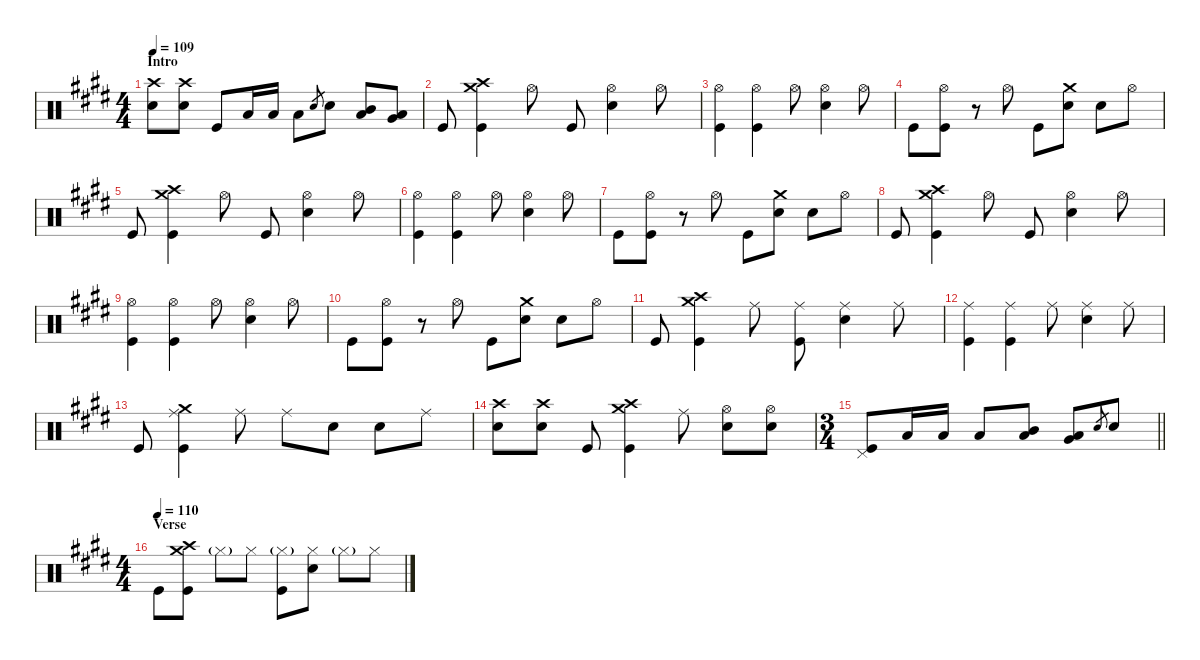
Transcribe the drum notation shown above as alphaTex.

\defaultSystemsLayout 4
\hideDynamics
\bracketExtendMode nobrackets
\singleTrackTrackNamePolicy hidden
\multiTrackTrackNamePolicy hidden
\firstSystemTrackNameMode fullname
\firstSystemTrackNameOrientation horizontal
\otherSystemsTrackNameOrientation horizontal
\track ("Aaron Harris" "drm.") {instrument percussion}
\staff {score}
\articulation defaults
\ts (4 4)
\beaming (8 2 2 2 2)
\section ("" "Intro")
\tempo 109
\clef neutral
\ks c#minor
("Crash high (hit)"{acc forcenatural} "Snare (hit) 2"{acc forcenatural}).8{dy f beam Down} ("Crash high (hit)"{acc forcenatural} "Snare (hit) 2"{acc forcenatural}).8{beam Down} "Kick (hit)"{acc forcenatural}.8{beam Up} "Low Tom (hit)"{acc forcenatural}.16{beam Up} "Low Tom (hit)"{acc forcenatural}.16{beam Up} "Low Tom (hit)"{acc forcenatural}.8{beam Down} "Electric Snare (hit)"{acc forcenatural}.8{gr dy mf beam Up} "Snare (hit) 2"{acc forcenatural}.8{dy f beam Down} ("Mid Tom (hit)"{acc forcenatural} "Low Tom (hit)"{acc forcenatural}).8{beam Up} ("Low Tom (hit)"{acc forcenatural} "Very Low Tom (hit)"{acc forcenatural}).8{beam Up} |
"Kick (hit)"{acc forcenatural}.8{beam Up} ("Crash medium (hit)"{acc forcenatural} "Crash high (hit)"{acc forcenatural} "Kick (hit)"{acc forcenatural}).4{beam Down} "Hi-Hat (open)"{acc forcenatural}.8{beam Down} "Kick (hit)"{acc forcenatural}.8{beam Up} ("Hi-Hat (open)"{acc forcenatural} "Snare (hit) 2"{acc forcenatural}).4{beam Down} "Hi-Hat (open)"{acc forcenatural}.8{beam Down} |
("Hi-Hat (open)"{acc forcenatural} "Kick (hit)"{acc forcenatural}).4{beam Down} ("Hi-Hat (open)"{acc forcenatural} "Kick (hit)"{acc forcenatural}).4{beam Down} "Hi-Hat (open)"{acc forcenatural}.8{dy mp beam Down} ("Hi-Hat (open)"{acc forcenatural} "Snare (hit) 2"{acc forcenatural}).4{dy f beam Down} "Hi-Hat (open)"{acc forcenatural}.8{beam Down} |
"Kick (hit)"{acc forcenatural}.8{beam Down} ("Hi-Hat (open)"{acc forcenatural} "Kick (hit)"{acc forcenatural}).8{beam Down} r.8{beam Down} "Hi-Hat (open)"{acc forcenatural}.8{beam Down} "Kick (hit)"{acc forcenatural}.8{beam Down} ("Crash medium (hit)"{acc forcenatural} "Snare (hit) 2"{acc forcenatural}).8{beam Down} "Snare (hit) 2"{acc forcenatural}.8{beam Down} "Hi-Hat (open)"{acc forcenatural}.8{beam Down} |
"Kick (hit)"{acc forcenatural}.8{beam Up} ("Crash medium (hit)"{acc forcenatural} "Crash high (hit)"{acc forcenatural} "Kick (hit)"{acc forcenatural}).4{beam Down} "Hi-Hat (open)"{acc forcenatural}.8{beam Down} "Kick (hit)"{acc forcenatural}.8{beam Up} ("Hi-Hat (open)"{acc forcenatural} "Snare (hit) 2"{acc forcenatural}).4{beam Down} "Hi-Hat (open)"{acc forcenatural}.8{beam Down} |
("Hi-Hat (open)"{acc forcenatural} "Kick (hit)"{acc forcenatural}).4{beam Down} ("Hi-Hat (open)"{acc forcenatural} "Kick (hit)"{acc forcenatural}).4{beam Down} "Hi-Hat (open)"{acc forcenatural}.8{dy mp beam Down} ("Hi-Hat (open)"{acc forcenatural} "Snare (hit) 2"{acc forcenatural}).4{dy f beam Down} "Hi-Hat (open)"{acc forcenatural}.8{beam Down} |
"Kick (hit)"{acc forcenatural}.8{beam Down} ("Hi-Hat (open)"{acc forcenatural} "Kick (hit)"{acc forcenatural}).8{beam Down} r.8{beam Down} "Hi-Hat (open)"{acc forcenatural}.8{beam Down} "Kick (hit)"{acc forcenatural}.8{beam Down} ("Crash medium (hit)"{acc forcenatural} "Snare (hit) 2"{acc forcenatural}).8{beam Down} "Snare (hit) 2"{acc forcenatural}.8{beam Down} "Hi-Hat (open)"{acc forcenatural}.8{beam Down} |
"Kick (hit)"{acc forcenatural}.8{beam Up} ("Crash medium (hit)"{acc forcenatural} "Crash high (hit)"{acc forcenatural} "Kick (hit)"{acc forcenatural}).4{beam Down} "Hi-Hat (open)"{acc forcenatural}.8{beam Down} "Kick (hit)"{acc forcenatural}.8{beam Up} ("Hi-Hat (open)"{acc forcenatural} "Snare (hit) 2"{acc forcenatural}).4{beam Down} "Hi-Hat (open)"{acc forcenatural}.8{beam Down} |
("Hi-Hat (open)"{acc forcenatural} "Kick (hit)"{acc forcenatural}).4{beam Down} ("Hi-Hat (open)"{acc forcenatural} "Kick (hit)"{acc forcenatural}).4{beam Down} "Hi-Hat (open)"{acc forcenatural}.8{dy mp beam Down} ("Hi-Hat (open)"{acc forcenatural} "Snare (hit) 2"{acc forcenatural}).4{dy f beam Down} "Hi-Hat (open)"{acc forcenatural}.8{beam Down} |
"Kick (hit)"{acc forcenatural}.8{beam Down} ("Hi-Hat (open)"{acc forcenatural} "Kick (hit)"{acc forcenatural}).8{beam Down} r.8{beam Down} "Hi-Hat (open)"{acc forcenatural}.8{beam Down} "Kick (hit)"{acc forcenatural}.8{beam Down} ("Crash medium (hit)"{acc forcenatural} "Snare (hit) 2"{acc forcenatural}).8{beam Down} "Snare (hit) 2"{acc forcenatural}.8{beam Down} "Hi-Hat (open)"{acc forcenatural}.8{beam Down} |
"Kick (hit)"{acc forcenatural}.8{beam Up} ("Crash medium (hit)"{acc forcenatural} "Crash high (hit)"{acc forcenatural} "Kick (hit)"{acc forcenatural}).4{beam Down} "Ride (middle)"{acc forcenatural}.8{beam Down} ("Ride (middle)"{acc forcenatural} "Kick (hit)"{acc forcenatural}).8{beam Down} ("Ride (middle)"{acc forcenatural} "Snare (hit) 2"{acc forcenatural}).4{beam Down} "Ride (middle)"{acc forcenatural}.8{beam Down} |
("Ride (middle)"{acc forcenatural} "Kick (hit)"{acc forcenatural}).4{beam Down} ("Ride (middle)"{acc forcenatural} "Kick (hit)"{acc forcenatural}).4{beam Down} "Ride (middle)"{acc forcenatural}.8{dy mp beam Down} ("Ride (middle)"{acc forcenatural} "Snare (hit) 2"{acc forcenatural}).4{dy f beam Down} "Ride (middle)"{acc forcenatural}.8{beam Down} |
"Kick (hit)"{acc forcenatural}.8{beam Up} ("Crash medium (hit)"{acc forcenatural} "Ride (middle)"{acc forcenatural} "Kick (hit)"{acc forcenatural}).4{beam Down} "Ride (middle)"{acc forcenatural}.8{beam Down} "Ride (middle)"{acc forcenatural}.8{beam Down} "Snare (hit) 2"{acc forcenatural}.8{beam Down} "Snare (hit) 2"{acc forcenatural}.8{beam Down} "Ride (middle)"{acc forcenatural}.8{beam Down} |
("Crash high (hit)"{acc forcenatural} "Snare (hit) 2"{acc forcenatural}).8{beam Down} ("Crash high (hit)"{acc forcenatural} "Snare (hit) 2"{acc forcenatural}).8{beam Down} "Kick (hit)"{acc forcenatural}.8{beam Up} ("Crash medium (hit)"{acc forcenatural} "Crash high (hit)"{acc forcenatural} "Kick (hit)"{acc forcenatural}).4{beam Down} "Ride (middle)"{acc forcenatural}.8{beam Down} ("Hi-Hat (open)"{acc forcenatural} "Snare (hit) 2"{acc forcenatural}).8{beam Down} ("Hi-Hat (open)"{acc forcenatural} "Snare (hit) 2"{acc forcenatural}).8{beam Down} |
\ts (3 4)
\beaming (8 2 2 2 2)
\barLineRight lightlight
("Pedal Hi-Hat (hit)"{acc forcenatural} "Kick (hit)"{acc forcenatural}).8{beam Up} "Low Tom (hit)"{acc forcenatural}.16{beam Up} "Low Tom (hit)"{acc forcenatural}.16{beam Up} "Low Tom (hit)"{acc forcenatural}.8{beam Up} ("Mid Tom (hit)"{acc forcenatural} "Low Tom (hit)"{acc forcenatural}).8{beam Up} ("Low Tom (hit)"{acc forcenatural} "Very Low Tom (hit)"{acc forcenatural}).8{beam Up} "Electric Snare (hit)"{acc forcenatural}.8{gr dy mf beam Up} "Snare (hit) 2"{acc forcenatural}.8{dy f beam Up} |
\ts (4 4)
\beaming (8 2 2 2 2)
\section ("" "Verse")
\tempo (110)
"Kick (hit)"{acc forcenatural}.8{beam Down} ("Crash medium (hit)"{acc forcenatural} "Crash high (hit)"{acc forcenatural} "Kick (hit)"{acc forcenatural}).8{beam Down} "Hi-Hat (closed)"{g acc forcenatural}.8{dy mf beam Down} "Hi-Hat (closed)"{acc forcenatural}.8{dy f beam Down} ("Hi-Hat (closed)"{g acc forcenatural} "Kick (hit)"{acc forcenatural}).8{beam Down} ("Hi-Hat (closed)"{acc forcenatural} "Snare (hit) 2"{acc forcenatural}).8{beam Down} "Hi-Hat (closed)"{g acc forcenatural}.8{dy mf beam Down} "Hi-Hat (closed)"{acc forcenatural}.8{dy f beam Down}
